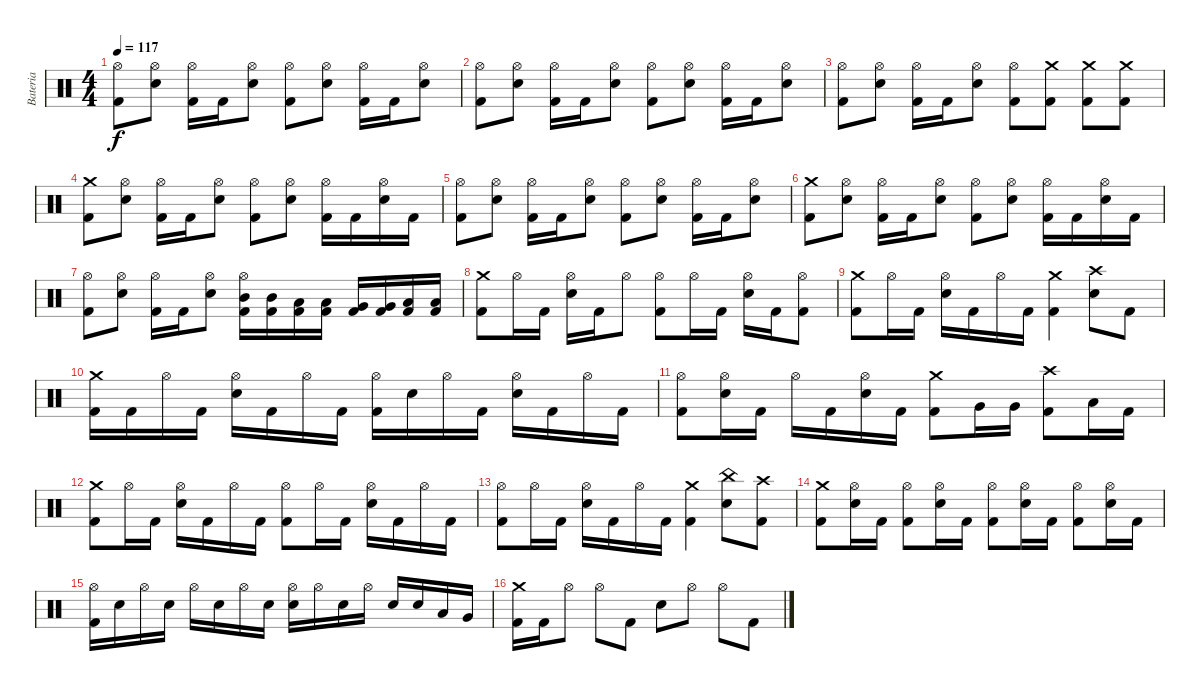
\track ("Bateria" "Bateria") {instrument percussion}
\staff {score}
\articulation defaults
\ts (4 4)
\tempo 117
\clef neutral
\ks c
("Hi-Hat (open)" "Kick (hit) 2").8{dy f} ("Hi-Hat (open)" "Electric Snare (hit)").8 ("Hi-Hat (open)" "Kick (hit) 2").16 "Kick (hit) 2".16 ("Hi-Hat (open)" "Electric Snare (hit)").8 ("Hi-Hat (open)" "Kick (hit) 2").8 ("Hi-Hat (open)" "Electric Snare (hit)").8 ("Hi-Hat (open)" "Kick (hit) 2").16 "Kick (hit) 2".16 ("Hi-Hat (open)" "Electric Snare (hit)").8 |
("Hi-Hat (open)" "Kick (hit) 2").8 ("Hi-Hat (open)" "Electric Snare (hit)").8 ("Hi-Hat (open)" "Kick (hit) 2").16 "Kick (hit) 2".16 ("Hi-Hat (open)" "Electric Snare (hit)").8 ("Hi-Hat (open)" "Kick (hit) 2").8 ("Hi-Hat (open)" "Electric Snare (hit)").8 ("Hi-Hat (open)" "Kick (hit) 2").16 "Kick (hit) 2".16 ("Hi-Hat (open)" "Electric Snare (hit)").8 |
("Hi-Hat (open)" "Kick (hit) 2").8 ("Hi-Hat (open)" "Electric Snare (hit)").8 ("Hi-Hat (open)" "Kick (hit) 2").16 "Kick (hit) 2".16 ("Hi-Hat (open)" "Electric Snare (hit)").8 ("Hi-Hat (open)" "Kick (hit) 2").8 ("Crash medium (hit)" "Kick (hit) 2").8 ("Crash medium (hit)" "Kick (hit) 2").8 ("Crash medium (hit)" "Kick (hit) 2").8 |
("Crash medium (hit)" "Kick (hit) 2").8 ("Hi-Hat (open)" "Electric Snare (hit)").8 ("Hi-Hat (open)" "Kick (hit) 2").16 "Kick (hit) 2".16 ("Hi-Hat (open)" "Electric Snare (hit)").8 ("Hi-Hat (open)" "Kick (hit) 2").8 ("Hi-Hat (open)" "Electric Snare (hit)").8 ("Hi-Hat (open)" "Kick (hit) 2").16 "Kick (hit) 2".16 ("Hi-Hat (open)" "Electric Snare (hit)").16 "Kick (hit) 2".16 |
("Hi-Hat (open)" "Kick (hit) 2").8 ("Hi-Hat (open)" "Electric Snare (hit)").8 ("Hi-Hat (open)" "Kick (hit) 2").16 "Kick (hit) 2".16 ("Hi-Hat (open)" "Electric Snare (hit)").8 ("Hi-Hat (open)" "Kick (hit) 2").8 ("Hi-Hat (open)" "Electric Snare (hit)").8 ("Hi-Hat (open)" "Kick (hit) 2").16 "Kick (hit) 2".16 ("Hi-Hat (open)" "Electric Snare (hit)").8 |
("Crash medium (hit)" "Kick (hit) 2").8 ("Hi-Hat (open)" "Electric Snare (hit)").8 ("Hi-Hat (open)" "Kick (hit) 2").16 "Kick (hit) 2".16 ("Hi-Hat (open)" "Electric Snare (hit)").8 ("Hi-Hat (open)" "Kick (hit) 2").8 ("Hi-Hat (open)" "Electric Snare (hit)").8 ("Hi-Hat (open)" "Kick (hit) 2").16 "Kick (hit) 2".16 ("Hi-Hat (open)" "Electric Snare (hit)").16 "Kick (hit) 2".16 |
("Hi-Hat (open)" "Kick (hit) 2").8 ("Hi-Hat (open)" "Electric Snare (hit)").8 ("Hi-Hat (open)" "Kick (hit) 2").16 "Kick (hit) 2".16 ("Hi-Hat (open)" "Electric Snare (hit)").8 ("Hi-Hat (open)" "Mid Tom (hit)" "Kick (hit) 2").16 ("Mid Tom (hit)" "Kick (hit) 2").16 ("Low Tom (hit)" "Kick (hit) 2").16 ("Low Tom (hit)" "Kick (hit) 2").16 ("Very Low Tom (hit)" "Kick (hit) 2").16 ("Very Low Tom (hit)" "Kick (hit) 2").16 ("Low Floor Tom (hit)" "Kick (hit) 2").16 ("Low Floor Tom (hit)" "Kick (hit) 2").16 |
("Crash medium (hit)" "Kick (hit) 2").8 "Hi-Hat (open)".16 "Kick (hit) 2".16 ("Hi-Hat (open)" "Electric Snare (hit)").16 "Kick (hit) 2".16 "Hi-Hat (open)".8 ("Hi-Hat (open)" "Kick (hit) 2").8 "Hi-Hat (open)".16 "Kick (hit) 2".16 ("Hi-Hat (open)" "Electric Snare (hit)").16 "Kick (hit) 2".16 ("Hi-Hat (open)" "Kick (hit) 2").8 |
("Crash medium (hit)" "Kick (hit) 2").8 "Hi-Hat (open)".16 "Kick (hit) 2".16 ("Hi-Hat (open)" "Electric Snare (hit)").16 "Kick (hit) 2".16 "Hi-Hat (open)".16 "Kick (hit) 2".16 ("Crash medium (hit)" "Kick (hit) 2").4 ("Crash high (hit)" "Electric Snare (hit)").8 "Kick (hit) 2".8 |
("Crash medium (hit)" "Kick (hit) 2").16 "Kick (hit) 2".16 "Hi-Hat (open)".16 "Kick (hit) 2".16 ("Hi-Hat (open)" "Electric Snare (hit)").16 "Kick (hit) 2".16 "Hi-Hat (open)".16 "Kick (hit) 2".16 ("Hi-Hat (open)" "Kick (hit) 2").16 "Electric Snare (hit)".16 "Hi-Hat (open)".16 "Kick (hit) 2".16 ("Hi-Hat (open)" "Electric Snare (hit)").16 "Kick (hit) 2".16 "Hi-Hat (open)".16 "Kick (hit) 2".16 |
("Hi-Hat (open)" "Kick (hit) 2").8 ("Hi-Hat (open)" "Electric Snare (hit)").16 "Kick (hit) 2".16 "Hi-Hat (open)".16 "Kick (hit) 2".16 ("Hi-Hat (open)" "Electric Snare (hit)").16 "Kick (hit) 2".16 ("Crash medium (hit)" "Kick (hit) 2").8 "Very Low Tom (hit)".16 "Very Low Tom (hit)".16 ("Crash high (hit)" "Kick (hit) 2").8 "Low Tom (hit)".16 "Kick (hit) 2".16 |
("Crash medium (hit)" "Kick (hit) 2").8 "Hi-Hat (open)".16 "Kick (hit) 2".16 ("Hi-Hat (open)" "Electric Snare (hit)").16 "Kick (hit) 2".16 "Hi-Hat (open)".16 "Kick (hit) 2".16 ("Hi-Hat (open)" "Kick (hit) 2").8 "Hi-Hat (open)".16 "Kick (hit) 2".16 ("Hi-Hat (open)" "Electric Snare (hit)").16 "Kick (hit) 2".16 "Hi-Hat (open)".16 "Kick (hit) 2".16 |
("Hi-Hat (open)" "Kick (hit) 2").8 "Hi-Hat (open)".16 "Kick (hit) 2".16 ("Hi-Hat (open)" "Electric Snare (hit)").16 "Kick (hit) 2".16 "Hi-Hat (open)".16 "Kick (hit) 2".16 ("Crash medium (hit)" "Kick (hit) 2").4 ("China (hit)" "Electric Snare (hit)").8 ("Crash high (hit)" "Kick (hit) 2").8 |
("Crash medium (hit)" "Kick (hit) 2").8 ("Hi-Hat (open)" "Electric Snare (hit)").16 "Kick (hit) 2".16 ("Hi-Hat (open)" "Kick (hit) 2").8 ("Hi-Hat (open)" "Electric Snare (hit)").16 "Kick (hit) 2".16 ("Hi-Hat (open)" "Kick (hit) 2").8 ("Hi-Hat (open)" "Electric Snare (hit)").16 "Kick (hit) 2".16 ("Hi-Hat (open)" "Kick (hit) 2").8 ("Hi-Hat (open)" "Electric Snare (hit)").16 "Kick (hit) 2".16 |
("Hi-Hat (open)" "Kick (hit) 2").16 "Electric Snare (hit)".16 "Hi-Hat (open)".16 "Electric Snare (hit)".16 "Hi-Hat (open)".16 "Electric Snare (hit)".16 "Hi-Hat (open)".16 "Electric Snare (hit)".16 ("Hi-Hat (open)" "Electric Snare (hit)").16 "Hi-Hat (open)".16 "Electric Snare (hit)".16 "Hi-Hat (open)".16 "Electric Snare (hit)".16 "Electric Snare (hit)".16 "Low Tom (hit)".16 "Very Low Tom (hit)".16 |
("Crash medium (hit)" "Kick (hit) 2").16 "Kick (hit) 2".16 "Hi-Hat (open)".8 "Hi-Hat (open)".8 "Kick (hit) 2".8 "Electric Snare (hit)".8 "Hi-Hat (open)".8 "Hi-Hat (open)".8 "Kick (hit) 2".8
